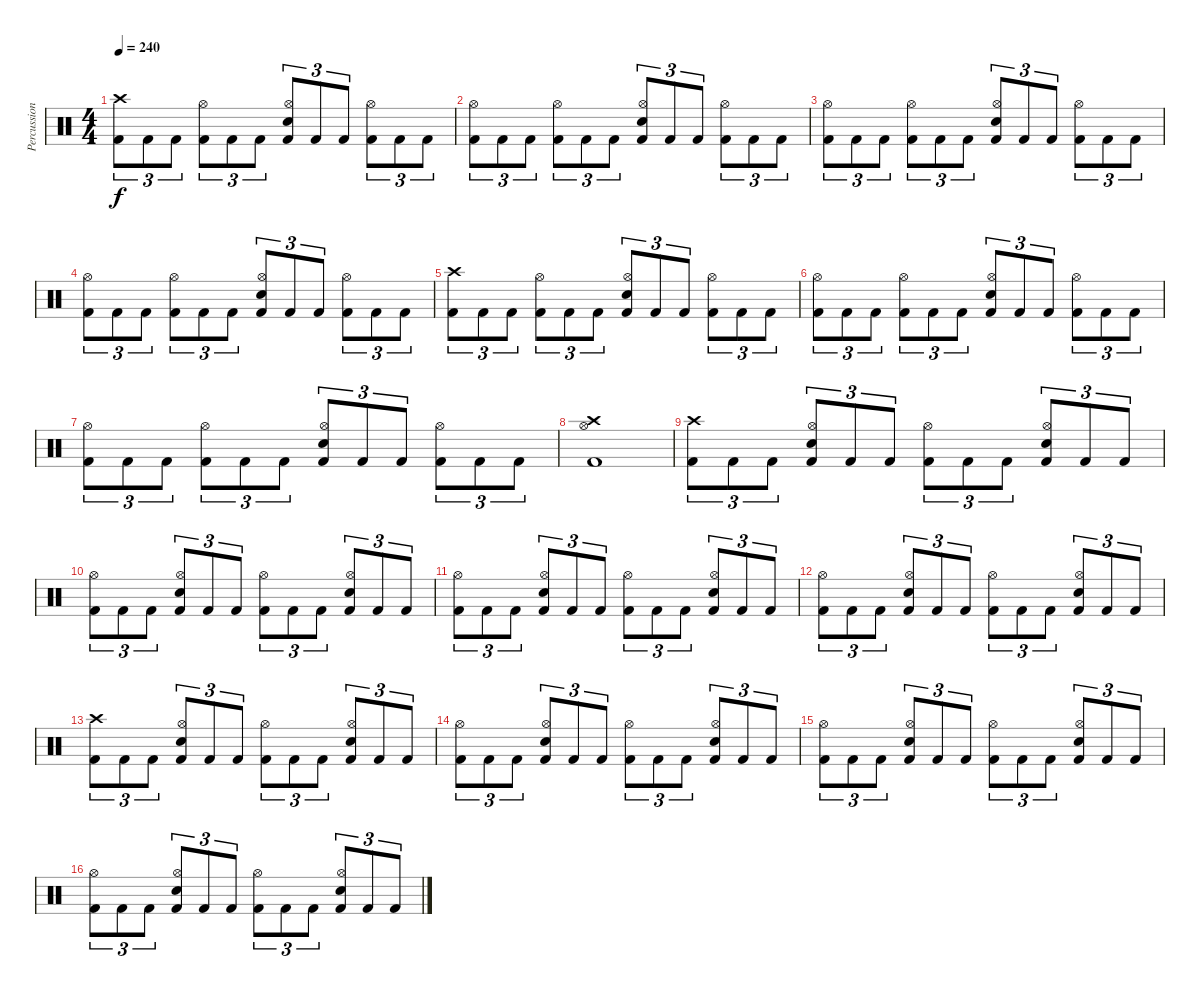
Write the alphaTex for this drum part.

\track ("Percussion" "Percussion") {instrument percussion}
\staff {score}
\articulation defaults
\ts (4 4)
\tempo 240
\clef neutral
\ks c
("Kick (hit) 2" "Crash high (hit)").8{tu (3 2) dy f} "Kick (hit) 2".8{tu (3 2)} "Kick (hit) 2".8{tu (3 2)} ("Kick (hit) 2" "Hi-Hat (open)").8{tu (3 2)} "Kick (hit) 2".8{tu (3 2)} "Kick (hit) 2".8{tu (3 2)} ("Kick (hit) 2" "Hi-Hat (open)" "Electric Snare (hit)").8{tu (3 2)} "Kick (hit) 2".8{tu (3 2)} "Kick (hit) 2".8{tu (3 2)} ("Kick (hit) 2" "Hi-Hat (open)").8{tu (3 2)} "Kick (hit) 2".8{tu (3 2)} "Kick (hit) 2".8{tu (3 2)} |
("Kick (hit) 2" "Hi-Hat (open)").8{tu (3 2)} "Kick (hit) 2".8{tu (3 2)} "Kick (hit) 2".8{tu (3 2)} ("Kick (hit) 2" "Hi-Hat (open)").8{tu (3 2)} "Kick (hit) 2".8{tu (3 2)} "Kick (hit) 2".8{tu (3 2)} ("Kick (hit) 2" "Hi-Hat (open)" "Electric Snare (hit)").8{tu (3 2)} "Kick (hit) 2".8{tu (3 2)} "Kick (hit) 2".8{tu (3 2)} ("Kick (hit) 2" "Hi-Hat (open)").8{tu (3 2)} "Kick (hit) 2".8{tu (3 2)} "Kick (hit) 2".8{tu (3 2)} |
("Kick (hit) 2" "Hi-Hat (open)").8{tu (3 2)} "Kick (hit) 2".8{tu (3 2)} "Kick (hit) 2".8{tu (3 2)} ("Kick (hit) 2" "Hi-Hat (open)").8{tu (3 2)} "Kick (hit) 2".8{tu (3 2)} "Kick (hit) 2".8{tu (3 2)} ("Kick (hit) 2" "Hi-Hat (open)" "Electric Snare (hit)").8{tu (3 2)} "Kick (hit) 2".8{tu (3 2)} "Kick (hit) 2".8{tu (3 2)} ("Kick (hit) 2" "Hi-Hat (open)").8{tu (3 2)} "Kick (hit) 2".8{tu (3 2)} "Kick (hit) 2".8{tu (3 2)} |
("Kick (hit) 2" "Hi-Hat (open)").8{tu (3 2)} "Kick (hit) 2".8{tu (3 2)} "Kick (hit) 2".8{tu (3 2)} ("Kick (hit) 2" "Hi-Hat (open)").8{tu (3 2)} "Kick (hit) 2".8{tu (3 2)} "Kick (hit) 2".8{tu (3 2)} ("Kick (hit) 2" "Hi-Hat (open)" "Electric Snare (hit)").8{tu (3 2)} "Kick (hit) 2".8{tu (3 2)} "Kick (hit) 2".8{tu (3 2)} ("Kick (hit) 2" "Hi-Hat (open)").8{tu (3 2)} "Kick (hit) 2".8{tu (3 2)} "Kick (hit) 2".8{tu (3 2)} |
("Kick (hit) 2" "Crash high (hit)").8{tu (3 2)} "Kick (hit) 2".8{tu (3 2)} "Kick (hit) 2".8{tu (3 2)} ("Kick (hit) 2" "Hi-Hat (open)").8{tu (3 2)} "Kick (hit) 2".8{tu (3 2)} "Kick (hit) 2".8{tu (3 2)} ("Kick (hit) 2" "Hi-Hat (open)" "Electric Snare (hit)").8{tu (3 2)} "Kick (hit) 2".8{tu (3 2)} "Kick (hit) 2".8{tu (3 2)} ("Kick (hit) 2" "Hi-Hat (open)").8{tu (3 2)} "Kick (hit) 2".8{tu (3 2)} "Kick (hit) 2".8{tu (3 2)} |
("Kick (hit) 2" "Hi-Hat (open)").8{tu (3 2)} "Kick (hit) 2".8{tu (3 2)} "Kick (hit) 2".8{tu (3 2)} ("Kick (hit) 2" "Hi-Hat (open)").8{tu (3 2)} "Kick (hit) 2".8{tu (3 2)} "Kick (hit) 2".8{tu (3 2)} ("Kick (hit) 2" "Hi-Hat (open)" "Electric Snare (hit)").8{tu (3 2)} "Kick (hit) 2".8{tu (3 2)} "Kick (hit) 2".8{tu (3 2)} ("Kick (hit) 2" "Hi-Hat (open)").8{tu (3 2)} "Kick (hit) 2".8{tu (3 2)} "Kick (hit) 2".8{tu (3 2)} |
("Kick (hit) 2" "Hi-Hat (open)").8{tu (3 2)} "Kick (hit) 2".8{tu (3 2)} "Kick (hit) 2".8{tu (3 2)} ("Kick (hit) 2" "Hi-Hat (open)").8{tu (3 2)} "Kick (hit) 2".8{tu (3 2)} "Kick (hit) 2".8{tu (3 2)} ("Kick (hit) 2" "Hi-Hat (open)" "Electric Snare (hit)").8{tu (3 2)} "Kick (hit) 2".8{tu (3 2)} "Kick (hit) 2".8{tu (3 2)} ("Kick (hit) 2" "Hi-Hat (open)").8{tu (3 2)} "Kick (hit) 2".8{tu (3 2)} "Kick (hit) 2".8{tu (3 2)} |
("Kick (hit) 2" "Hi-Hat (open)" "Crash high (hit)").1 |
("Kick (hit) 2" "Crash high (hit)").8{tu (3 2)} "Kick (hit) 2".8{tu (3 2)} "Kick (hit) 2".8{tu (3 2)} ("Kick (hit) 2" "Hi-Hat (open)" "Electric Snare (hit)").8{tu (3 2)} "Kick (hit) 2".8{tu (3 2)} "Kick (hit) 2".8{tu (3 2)} ("Kick (hit) 2" "Hi-Hat (open)").8{tu (3 2)} "Kick (hit) 2".8{tu (3 2)} "Kick (hit) 2".8{tu (3 2)} ("Kick (hit) 2" "Hi-Hat (open)" "Electric Snare (hit)").8{tu (3 2)} "Kick (hit) 2".8{tu (3 2)} "Kick (hit) 2".8{tu (3 2)} |
("Kick (hit) 2" "Hi-Hat (open)").8{tu (3 2)} "Kick (hit) 2".8{tu (3 2)} "Kick (hit) 2".8{tu (3 2)} ("Kick (hit) 2" "Hi-Hat (open)" "Electric Snare (hit)").8{tu (3 2)} "Kick (hit) 2".8{tu (3 2)} "Kick (hit) 2".8{tu (3 2)} ("Kick (hit) 2" "Hi-Hat (open)").8{tu (3 2)} "Kick (hit) 2".8{tu (3 2)} "Kick (hit) 2".8{tu (3 2)} ("Kick (hit) 2" "Hi-Hat (open)" "Electric Snare (hit)").8{tu (3 2)} "Kick (hit) 2".8{tu (3 2)} "Kick (hit) 2".8{tu (3 2)} |
("Kick (hit) 2" "Hi-Hat (open)").8{tu (3 2)} "Kick (hit) 2".8{tu (3 2)} "Kick (hit) 2".8{tu (3 2)} ("Kick (hit) 2" "Hi-Hat (open)" "Electric Snare (hit)").8{tu (3 2)} "Kick (hit) 2".8{tu (3 2)} "Kick (hit) 2".8{tu (3 2)} ("Kick (hit) 2" "Hi-Hat (open)").8{tu (3 2)} "Kick (hit) 2".8{tu (3 2)} "Kick (hit) 2".8{tu (3 2)} ("Kick (hit) 2" "Hi-Hat (open)" "Electric Snare (hit)").8{tu (3 2)} "Kick (hit) 2".8{tu (3 2)} "Kick (hit) 2".8{tu (3 2)} |
("Kick (hit) 2" "Hi-Hat (open)").8{tu (3 2)} "Kick (hit) 2".8{tu (3 2)} "Kick (hit) 2".8{tu (3 2)} ("Kick (hit) 2" "Hi-Hat (open)" "Electric Snare (hit)").8{tu (3 2)} "Kick (hit) 2".8{tu (3 2)} "Kick (hit) 2".8{tu (3 2)} ("Kick (hit) 2" "Hi-Hat (open)").8{tu (3 2)} "Kick (hit) 2".8{tu (3 2)} "Kick (hit) 2".8{tu (3 2)} ("Kick (hit) 2" "Hi-Hat (open)" "Electric Snare (hit)").8{tu (3 2)} "Kick (hit) 2".8{tu (3 2)} "Kick (hit) 2".8{tu (3 2)} |
("Kick (hit) 2" "Crash high (hit)").8{tu (3 2)} "Kick (hit) 2".8{tu (3 2)} "Kick (hit) 2".8{tu (3 2)} ("Kick (hit) 2" "Hi-Hat (open)" "Electric Snare (hit)").8{tu (3 2)} "Kick (hit) 2".8{tu (3 2)} "Kick (hit) 2".8{tu (3 2)} ("Kick (hit) 2" "Hi-Hat (open)").8{tu (3 2)} "Kick (hit) 2".8{tu (3 2)} "Kick (hit) 2".8{tu (3 2)} ("Kick (hit) 2" "Hi-Hat (open)" "Electric Snare (hit)").8{tu (3 2)} "Kick (hit) 2".8{tu (3 2)} "Kick (hit) 2".8{tu (3 2)} |
("Kick (hit) 2" "Hi-Hat (open)").8{tu (3 2)} "Kick (hit) 2".8{tu (3 2)} "Kick (hit) 2".8{tu (3 2)} ("Kick (hit) 2" "Hi-Hat (open)" "Electric Snare (hit)").8{tu (3 2)} "Kick (hit) 2".8{tu (3 2)} "Kick (hit) 2".8{tu (3 2)} ("Kick (hit) 2" "Hi-Hat (open)").8{tu (3 2)} "Kick (hit) 2".8{tu (3 2)} "Kick (hit) 2".8{tu (3 2)} ("Kick (hit) 2" "Hi-Hat (open)" "Electric Snare (hit)").8{tu (3 2)} "Kick (hit) 2".8{tu (3 2)} "Kick (hit) 2".8{tu (3 2)} |
("Kick (hit) 2" "Hi-Hat (open)").8{tu (3 2)} "Kick (hit) 2".8{tu (3 2)} "Kick (hit) 2".8{tu (3 2)} ("Kick (hit) 2" "Hi-Hat (open)" "Electric Snare (hit)").8{tu (3 2)} "Kick (hit) 2".8{tu (3 2)} "Kick (hit) 2".8{tu (3 2)} ("Kick (hit) 2" "Hi-Hat (open)").8{tu (3 2)} "Kick (hit) 2".8{tu (3 2)} "Kick (hit) 2".8{tu (3 2)} ("Kick (hit) 2" "Hi-Hat (open)" "Electric Snare (hit)").8{tu (3 2)} "Kick (hit) 2".8{tu (3 2)} "Kick (hit) 2".8{tu (3 2)} |
("Kick (hit) 2" "Hi-Hat (open)").8{tu (3 2)} "Kick (hit) 2".8{tu (3 2)} "Kick (hit) 2".8{tu (3 2)} ("Kick (hit) 2" "Hi-Hat (open)" "Electric Snare (hit)").8{tu (3 2)} "Kick (hit) 2".8{tu (3 2)} "Kick (hit) 2".8{tu (3 2)} ("Kick (hit) 2" "Hi-Hat (open)").8{tu (3 2)} "Kick (hit) 2".8{tu (3 2)} "Kick (hit) 2".8{tu (3 2)} ("Kick (hit) 2" "Hi-Hat (open)" "Electric Snare (hit)").8{tu (3 2)} "Kick (hit) 2".8{tu (3 2)} "Kick (hit) 2".8{tu (3 2)}
